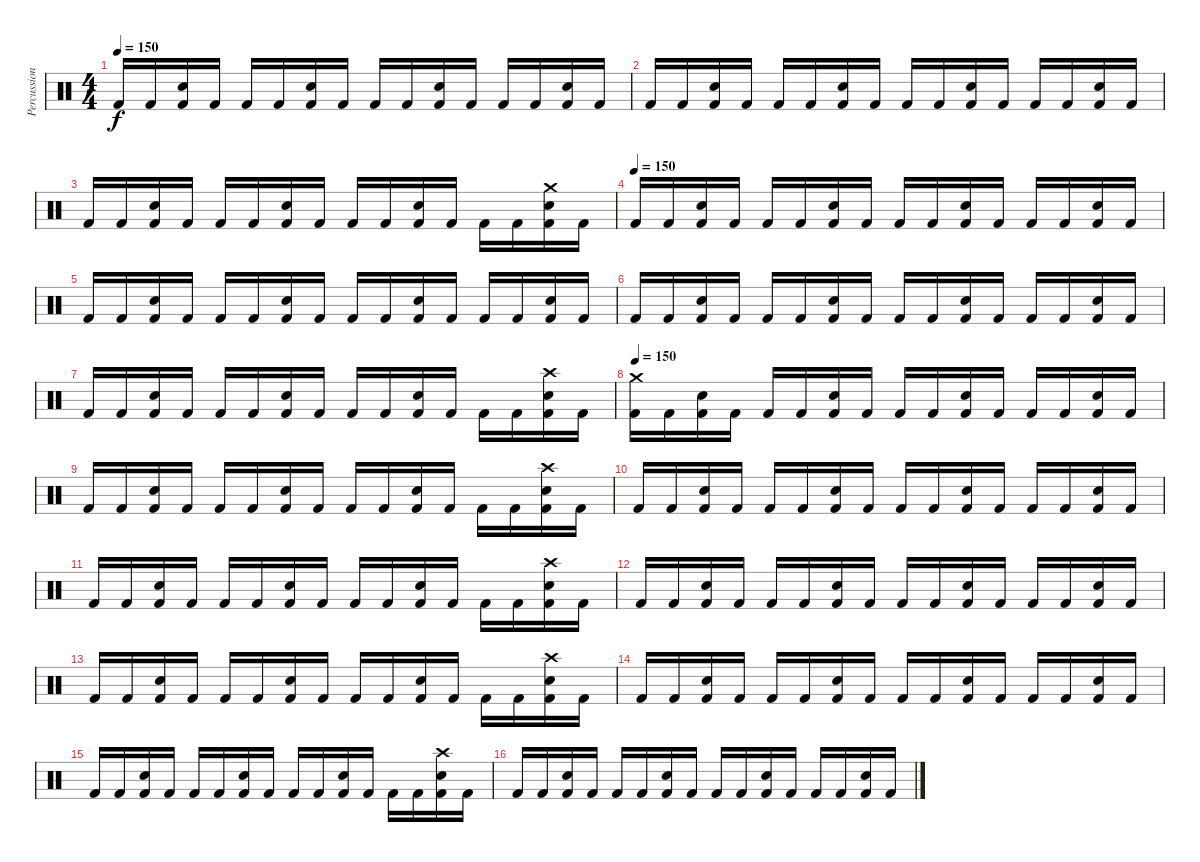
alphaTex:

\track ("Percussion" "Percussion") {instrument percussion}
\staff {score}
\articulation defaults
\ts (4 4)
\tempo 150
\clef neutral
\ks c "Kick (hit) 2".16{dy f} "Kick (hit) 2".16
("Snare (hit) 2" "Kick (hit) 2").16 "Kick (hit) 2".16 "Kick (hit) 2".16 "Kick (hit) 2".16 ("Snare (hit) 2" "Kick (hit) 2").16 "Kick (hit) 2".16 "Kick (hit) 2".16 "Kick (hit) 2".16 ("Snare (hit) 2" "Kick (hit) 2").16 "Kick (hit) 2".16 "Kick (hit) 2".16 "Kick (hit) 2".16 ("Snare (hit) 2" "Kick (hit) 2").16 "Kick (hit) 2".16 |
"Kick (hit) 2".16 "Kick (hit) 2".16 ("Snare (hit) 2" "Kick (hit) 2").16 "Kick (hit) 2".16 "Kick (hit) 2".16 "Kick (hit) 2".16 ("Snare (hit) 2" "Kick (hit) 2").16 "Kick (hit) 2".16 "Kick (hit) 2".16 "Kick (hit) 2".16 ("Snare (hit) 2" "Kick (hit) 2").16 "Kick (hit) 2".16 "Kick (hit) 2".16 "Kick (hit) 2".16 ("Snare (hit) 2" "Kick (hit) 2").16 "Kick (hit) 2".16 |
"Kick (hit) 2".16 "Kick (hit) 2".16 ("Snare (hit) 2" "Kick (hit) 2").16 "Kick (hit) 2".16 "Kick (hit) 2".16 "Kick (hit) 2".16 ("Snare (hit) 2" "Kick (hit) 2").16 "Kick (hit) 2".16 "Kick (hit) 2".16 "Kick (hit) 2".16 ("Snare (hit) 2" "Kick (hit) 2").16 "Kick (hit) 2".16 "Kick (hit) 2".16 "Kick (hit) 2".16 ("Crash medium (hit)" "Snare (hit) 2" "Kick (hit) 2").16 "Kick (hit) 2".16 |
\tempo (150)
"Kick (hit) 2".16 "Kick (hit) 2".16 ("Snare (hit) 2" "Kick (hit) 2").16 "Kick (hit) 2".16 "Kick (hit) 2".16 "Kick (hit) 2".16 ("Snare (hit) 2" "Kick (hit) 2").16 "Kick (hit) 2".16 "Kick (hit) 2".16 "Kick (hit) 2".16 ("Snare (hit) 2" "Kick (hit) 2").16 "Kick (hit) 2".16 "Kick (hit) 2".16 "Kick (hit) 2".16 ("Snare (hit) 2" "Kick (hit) 2").16 "Kick (hit) 2".16 |
"Kick (hit) 2".16 "Kick (hit) 2".16 ("Snare (hit) 2" "Kick (hit) 2").16 "Kick (hit) 2".16 "Kick (hit) 2".16 "Kick (hit) 2".16 ("Snare (hit) 2" "Kick (hit) 2").16 "Kick (hit) 2".16 "Kick (hit) 2".16 "Kick (hit) 2".16 ("Snare (hit) 2" "Kick (hit) 2").16 "Kick (hit) 2".16 "Kick (hit) 2".16 "Kick (hit) 2".16 ("Snare (hit) 2" "Kick (hit) 2").16 "Kick (hit) 2".16 |
"Kick (hit) 2".16 "Kick (hit) 2".16 ("Snare (hit) 2" "Kick (hit) 2").16 "Kick (hit) 2".16 "Kick (hit) 2".16 "Kick (hit) 2".16 ("Snare (hit) 2" "Kick (hit) 2").16 "Kick (hit) 2".16 "Kick (hit) 2".16 "Kick (hit) 2".16 ("Snare (hit) 2" "Kick (hit) 2").16 "Kick (hit) 2".16 "Kick (hit) 2".16 "Kick (hit) 2".16 ("Snare (hit) 2" "Kick (hit) 2").16 "Kick (hit) 2".16 |
"Kick (hit) 2".16 "Kick (hit) 2".16 ("Snare (hit) 2" "Kick (hit) 2").16 "Kick (hit) 2".16 "Kick (hit) 2".16 "Kick (hit) 2".16 ("Snare (hit) 2" "Kick (hit) 2").16 "Kick (hit) 2".16 "Kick (hit) 2".16 "Kick (hit) 2".16 ("Snare (hit) 2" "Kick (hit) 2").16 "Kick (hit) 2".16 "Kick (hit) 2".16 "Kick (hit) 2".16 ("Crash high (hit)" "Snare (hit) 2" "Kick (hit) 2").16 "Kick (hit) 2".16 |
\tempo 150
("Crash medium (hit)" "Kick (hit) 2").16 "Kick (hit) 2".16 ("Snare (hit) 2" "Kick (hit) 2").16 "Kick (hit) 2".16 "Kick (hit) 2".16 "Kick (hit) 2".16 ("Snare (hit) 2" "Kick (hit) 2").16 "Kick (hit) 2".16 "Kick (hit) 2".16 "Kick (hit) 2".16 ("Snare (hit) 2" "Kick (hit) 2").16 "Kick (hit) 2".16 "Kick (hit) 2".16 "Kick (hit) 2".16 ("Snare (hit) 2" "Kick (hit) 2").16 "Kick (hit) 2".16 |
"Kick (hit) 2".16 "Kick (hit) 2".16 ("Snare (hit) 2" "Kick (hit) 2").16 "Kick (hit) 2".16 "Kick (hit) 2".16 "Kick (hit) 2".16 ("Snare (hit) 2" "Kick (hit) 2").16 "Kick (hit) 2".16 "Kick (hit) 2".16 "Kick (hit) 2".16 ("Snare (hit) 2" "Kick (hit) 2").16 "Kick (hit) 2".16 "Kick (hit) 2".16 "Kick (hit) 2".16 ("Crash high (hit)" "Snare (hit) 2" "Kick (hit) 2").16 "Kick (hit) 2".16 |
"Kick (hit) 2".16 "Kick (hit) 2".16 ("Snare (hit) 2" "Kick (hit) 2").16 "Kick (hit) 2".16 "Kick (hit) 2".16 "Kick (hit) 2".16 ("Snare (hit) 2" "Kick (hit) 2").16 "Kick (hit) 2".16 "Kick (hit) 2".16 "Kick (hit) 2".16 ("Snare (hit) 2" "Kick (hit) 2").16 "Kick (hit) 2".16 "Kick (hit) 2".16 "Kick (hit) 2".16 ("Snare (hit) 2" "Kick (hit) 2").16 "Kick (hit) 2".16 |
"Kick (hit) 2".16 "Kick (hit) 2".16 ("Snare (hit) 2" "Kick (hit) 2").16 "Kick (hit) 2".16 "Kick (hit) 2".16 "Kick (hit) 2".16 ("Snare (hit) 2" "Kick (hit) 2").16 "Kick (hit) 2".16 "Kick (hit) 2".16 "Kick (hit) 2".16 ("Snare (hit) 2" "Kick (hit) 2").16 "Kick (hit) 2".16 "Kick (hit) 2".16 "Kick (hit) 2".16 ("Crash high (hit)" "Snare (hit) 2" "Kick (hit) 2").16 "Kick (hit) 2".16 |
"Kick (hit) 2".16 "Kick (hit) 2".16 ("Snare (hit) 2" "Kick (hit) 2").16 "Kick (hit) 2".16 "Kick (hit) 2".16 "Kick (hit) 2".16 ("Snare (hit) 2" "Kick (hit) 2").16 "Kick (hit) 2".16 "Kick (hit) 2".16 "Kick (hit) 2".16 ("Snare (hit) 2" "Kick (hit) 2").16 "Kick (hit) 2".16 "Kick (hit) 2".16 "Kick (hit) 2".16 ("Snare (hit) 2" "Kick (hit) 2").16 "Kick (hit) 2".16 |
"Kick (hit) 2".16 "Kick (hit) 2".16 ("Snare (hit) 2" "Kick (hit) 2").16 "Kick (hit) 2".16 "Kick (hit) 2".16 "Kick (hit) 2".16 ("Snare (hit) 2" "Kick (hit) 2").16 "Kick (hit) 2".16 "Kick (hit) 2".16 "Kick (hit) 2".16 ("Snare (hit) 2" "Kick (hit) 2").16 "Kick (hit) 2".16 "Kick (hit) 2".16 "Kick (hit) 2".16 ("Crash high (hit)" "Snare (hit) 2" "Kick (hit) 2").16 "Kick (hit) 2".16 |
"Kick (hit) 2".16 "Kick (hit) 2".16 ("Snare (hit) 2" "Kick (hit) 2").16 "Kick (hit) 2".16 "Kick (hit) 2".16 "Kick (hit) 2".16 ("Snare (hit) 2" "Kick (hit) 2").16 "Kick (hit) 2".16 "Kick (hit) 2".16 "Kick (hit) 2".16 ("Snare (hit) 2" "Kick (hit) 2").16 "Kick (hit) 2".16 "Kick (hit) 2".16 "Kick (hit) 2".16 ("Snare (hit) 2" "Kick (hit) 2").16 "Kick (hit) 2".16 |
"Kick (hit) 2".16 "Kick (hit) 2".16 ("Snare (hit) 2" "Kick (hit) 2").16 "Kick (hit) 2".16 "Kick (hit) 2".16 "Kick (hit) 2".16 ("Snare (hit) 2" "Kick (hit) 2").16 "Kick (hit) 2".16 "Kick (hit) 2".16 "Kick (hit) 2".16 ("Snare (hit) 2" "Kick (hit) 2").16 "Kick (hit) 2".16 "Kick (hit) 2".16 "Kick (hit) 2".16 ("Crash high (hit)" "Snare (hit) 2" "Kick (hit) 2").16 "Kick (hit) 2".16 |
"Kick (hit) 2".16 "Kick (hit) 2".16 ("Snare (hit) 2" "Kick (hit) 2").16 "Kick (hit) 2".16 "Kick (hit) 2".16 "Kick (hit) 2".16 ("Snare (hit) 2" "Kick (hit) 2").16 "Kick (hit) 2".16 "Kick (hit) 2".16 "Kick (hit) 2".16 ("Snare (hit) 2" "Kick (hit) 2").16 "Kick (hit) 2".16 "Kick (hit) 2".16 "Kick (hit) 2".16 ("Snare (hit) 2" "Kick (hit) 2").16 "Kick (hit) 2".16
